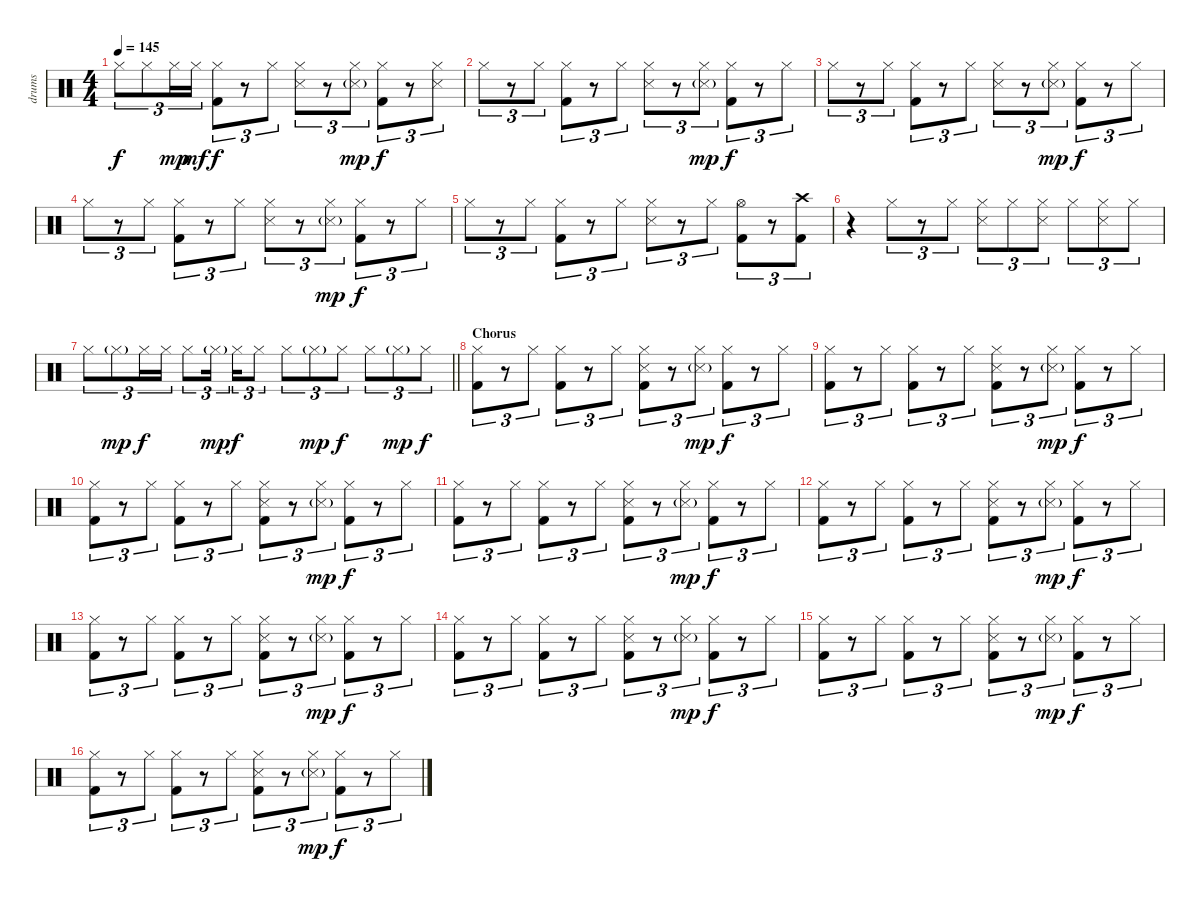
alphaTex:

\track ("drums" "drums") {instrument percussion}
\staff {score}
\articulation defaults
\ts (4 4)
\tempo 145
\clef neutral
\ks c "Hi-Hat (closed)".8{tu (3 2) dy f} "Hi-Hat (closed)".8{tu (3 2)} "Hi-Hat (closed)".16{tu (3 2) dy mp} "Hi-Hat (closed)".16{tu (3 2) dy mf}
("Hi-Hat (closed)" "Kick (hit) 2").8{tu (3 2) dy f} r.8{tu (3 2)} "Hi-Hat (closed)".8{tu (3 2)} ("Hi-Hat (closed)" "Snare (side stick) 3").8{tu (3 2)} r.8{tu (3 2)} ("Hi-Hat (closed)" "Snare (side stick) 3"{g}).8{tu (3 2) dy mp} ("Hi-Hat (closed)" "Kick (hit) 2").8{tu (3 2) dy f} r.8{tu (3 2)} ("Hi-Hat (closed)" "Snare (side stick) 3").8{tu (3 2)} |
"Hi-Hat (closed)".8{tu (3 2)} r.8{tu (3 2)} "Hi-Hat (closed)".8{tu (3 2)} ("Hi-Hat (closed)" "Kick (hit) 2").8{tu (3 2)} r.8{tu (3 2)} "Hi-Hat (closed)".8{tu (3 2)} ("Hi-Hat (closed)" "Snare (side stick) 3").8{tu (3 2)} r.8{tu (3 2)} ("Hi-Hat (closed)" "Snare (side stick) 3"{g}).8{tu (3 2) dy mp} ("Hi-Hat (closed)" "Kick (hit) 2").8{tu (3 2) dy f} r.8{tu (3 2)} "Hi-Hat (closed)".8{tu (3 2)} |
"Hi-Hat (closed)".8{tu (3 2)} r.8{tu (3 2)} "Hi-Hat (closed)".8{tu (3 2)} ("Hi-Hat (closed)" "Kick (hit) 2").8{tu (3 2)} r.8{tu (3 2)} "Hi-Hat (closed)".8{tu (3 2)} ("Hi-Hat (closed)" "Snare (side stick) 3").8{tu (3 2)} r.8{tu (3 2)} ("Hi-Hat (closed)" "Snare (side stick) 3"{g}).8{tu (3 2) dy mp} ("Hi-Hat (closed)" "Kick (hit) 2").8{tu (3 2) dy f} r.8{tu (3 2)} "Hi-Hat (closed)".8{tu (3 2)} |
"Hi-Hat (closed)".8{tu (3 2)} r.8{tu (3 2)} "Hi-Hat (closed)".8{tu (3 2)} ("Hi-Hat (closed)" "Kick (hit) 2").8{tu (3 2)} r.8{tu (3 2)} "Hi-Hat (closed)".8{tu (3 2)} ("Hi-Hat (closed)" "Snare (side stick) 3").8{tu (3 2)} r.8{tu (3 2)} ("Hi-Hat (closed)" "Snare (side stick) 3"{g}).8{tu (3 2) dy mp} ("Hi-Hat (closed)" "Kick (hit) 2").8{tu (3 2) dy f} r.8{tu (3 2)} "Hi-Hat (closed)".8{tu (3 2)} |
"Hi-Hat (closed)".8{tu (3 2)} r.8{tu (3 2)} "Hi-Hat (closed)".8{tu (3 2)} ("Hi-Hat (closed)" "Kick (hit) 2").8{tu (3 2)} r.8{tu (3 2)} "Hi-Hat (closed)".8{tu (3 2)} ("Hi-Hat (closed)" "Snare (side stick) 3").8{tu (3 2)} r.8{tu (3 2)} "Hi-Hat (closed)".8{tu (3 2)} ("Hi-Hat (open)" "Kick (hit) 2").8{tu (3 2)} r.8{tu (3 2)} ("Crash high (hit)" "Kick (hit) 2").8{tu (3 2)} |
r.4 "Hi-Hat (closed)".8{tu (3 2)} r.8{tu (3 2)} "Hi-Hat (closed)".8{tu (3 2)} ("Hi-Hat (closed)" "Snare (side stick) 3").8{tu (3 2)} "Hi-Hat (closed)".8{tu (3 2)} ("Hi-Hat (closed)" "Snare (side stick) 3").8{tu (3 2)} "Hi-Hat (closed)".8{tu (3 2)} ("Hi-Hat (closed)" "Snare (side stick) 3").8{tu (3 2)} "Hi-Hat (closed)".8{tu (3 2)} |
\barLineRight lightlight "Hi-Hat (closed)".8{tu (3 2)} "Hi-Hat (closed)"{g}.8{tu (3 2) dy mp} "Hi-Hat (closed)".16{tu (3 2) dy f} "Hi-Hat (closed)".16{tu (3 2)} "Hi-Hat (closed)".8{tu (3 2)} "Hi-Hat (closed)"{g}.16{tu (3 2) dy mp} "Hi-Hat (closed)".16{tu (3 2) dy f} "Hi-Hat (closed)".8{tu (3 2)} "Hi-Hat (closed)".8{tu (3 2)} "Hi-Hat (closed)"{g}.8{tu (3 2) dy mp} "Hi-Hat (closed)".8{tu (3 2) dy f} "Hi-Hat (closed)".8{tu (3 2)} "Hi-Hat (closed)"{g}.8{tu (3 2) dy mp} "Hi-Hat (closed)".8{tu (3 2) dy f}
|
\section ("" "Chorus")
("Hi-Hat (closed)" "Kick (hit) 2").8{tu (3 2)} r.8{tu (3 2)} "Hi-Hat (closed)".8{tu (3 2)} ("Hi-Hat (closed)" "Kick (hit) 2").8{tu (3 2)} r.8{tu (3 2)} "Hi-Hat (closed)".8{tu (3 2)} ("Hi-Hat (closed)" "Snare (side stick) 3" "Kick (hit) 2").8{tu (3 2)} r.8{tu (3 2)} ("Hi-Hat (closed)" "Snare (side stick) 3"{g}).8{tu (3 2) dy mp} ("Hi-Hat (closed)" "Kick (hit) 2").8{tu (3 2) dy f} r.8{tu (3 2)} "Hi-Hat (closed)".8{tu (3 2)} |
("Hi-Hat (closed)" "Kick (hit) 2").8{tu (3 2)} r.8{tu (3 2)} "Hi-Hat (closed)".8{tu (3 2)} ("Hi-Hat (closed)" "Kick (hit) 2").8{tu (3 2)} r.8{tu (3 2)} "Hi-Hat (closed)".8{tu (3 2)} ("Hi-Hat (closed)" "Snare (side stick) 3" "Kick (hit) 2").8{tu (3 2)} r.8{tu (3 2)} ("Hi-Hat (closed)" "Snare (side stick) 3"{g}).8{tu (3 2) dy mp} ("Hi-Hat (closed)" "Kick (hit) 2").8{tu (3 2) dy f} r.8{tu (3 2)} "Hi-Hat (closed)".8{tu (3 2)} |
("Hi-Hat (closed)" "Kick (hit) 2").8{tu (3 2)} r.8{tu (3 2)} "Hi-Hat (closed)".8{tu (3 2)} ("Hi-Hat (closed)" "Kick (hit) 2").8{tu (3 2)} r.8{tu (3 2)} "Hi-Hat (closed)".8{tu (3 2)} ("Hi-Hat (closed)" "Snare (side stick) 3" "Kick (hit) 2").8{tu (3 2)} r.8{tu (3 2)} ("Hi-Hat (closed)" "Snare (side stick) 3"{g}).8{tu (3 2) dy mp} ("Hi-Hat (closed)" "Kick (hit) 2").8{tu (3 2) dy f} r.8{tu (3 2)} "Hi-Hat (closed)".8{tu (3 2)} |
("Hi-Hat (closed)" "Kick (hit) 2").8{tu (3 2)} r.8{tu (3 2)} "Hi-Hat (closed)".8{tu (3 2)} ("Hi-Hat (closed)" "Kick (hit) 2").8{tu (3 2)} r.8{tu (3 2)} "Hi-Hat (closed)".8{tu (3 2)} ("Hi-Hat (closed)" "Snare (side stick) 3" "Kick (hit) 2").8{tu (3 2)} r.8{tu (3 2)} ("Hi-Hat (closed)" "Snare (side stick) 3"{g}).8{tu (3 2) dy mp} ("Hi-Hat (closed)" "Kick (hit) 2").8{tu (3 2) dy f} r.8{tu (3 2)} "Hi-Hat (closed)".8{tu (3 2)} |
("Hi-Hat (closed)" "Kick (hit) 2").8{tu (3 2)} r.8{tu (3 2)} "Hi-Hat (closed)".8{tu (3 2)} ("Hi-Hat (closed)" "Kick (hit) 2").8{tu (3 2)} r.8{tu (3 2)} "Hi-Hat (closed)".8{tu (3 2)} ("Hi-Hat (closed)" "Snare (side stick) 3" "Kick (hit) 2").8{tu (3 2)} r.8{tu (3 2)} ("Hi-Hat (closed)" "Snare (side stick) 3"{g}).8{tu (3 2) dy mp} ("Hi-Hat (closed)" "Kick (hit) 2").8{tu (3 2) dy f} r.8{tu (3 2)} "Hi-Hat (closed)".8{tu (3 2)} |
("Hi-Hat (closed)" "Kick (hit) 2").8{tu (3 2)} r.8{tu (3 2)} "Hi-Hat (closed)".8{tu (3 2)} ("Hi-Hat (closed)" "Kick (hit) 2").8{tu (3 2)} r.8{tu (3 2)} "Hi-Hat (closed)".8{tu (3 2)} ("Hi-Hat (closed)" "Snare (side stick) 3" "Kick (hit) 2").8{tu (3 2)} r.8{tu (3 2)} ("Hi-Hat (closed)" "Snare (side stick) 3"{g}).8{tu (3 2) dy mp} ("Hi-Hat (closed)" "Kick (hit) 2").8{tu (3 2) dy f} r.8{tu (3 2)} "Hi-Hat (closed)".8{tu (3 2)} |
("Hi-Hat (closed)" "Kick (hit) 2").8{tu (3 2)} r.8{tu (3 2)} "Hi-Hat (closed)".8{tu (3 2)} ("Hi-Hat (closed)" "Kick (hit) 2").8{tu (3 2)} r.8{tu (3 2)} "Hi-Hat (closed)".8{tu (3 2)} ("Hi-Hat (closed)" "Snare (side stick) 3" "Kick (hit) 2").8{tu (3 2)} r.8{tu (3 2)} ("Hi-Hat (closed)" "Snare (side stick) 3"{g}).8{tu (3 2) dy mp} ("Hi-Hat (closed)" "Kick (hit) 2").8{tu (3 2) dy f} r.8{tu (3 2)} "Hi-Hat (closed)".8{tu (3 2)} |
("Hi-Hat (closed)" "Kick (hit) 2").8{tu (3 2)} r.8{tu (3 2)} "Hi-Hat (closed)".8{tu (3 2)} ("Hi-Hat (closed)" "Kick (hit) 2").8{tu (3 2)} r.8{tu (3 2)} "Hi-Hat (closed)".8{tu (3 2)} ("Hi-Hat (closed)" "Snare (side stick) 3" "Kick (hit) 2").8{tu (3 2)} r.8{tu (3 2)} ("Hi-Hat (closed)" "Snare (side stick) 3"{g}).8{tu (3 2) dy mp} ("Hi-Hat (closed)" "Kick (hit) 2").8{tu (3 2) dy f} r.8{tu (3 2)} "Hi-Hat (closed)".8{tu (3 2)} |
("Hi-Hat (closed)" "Kick (hit) 2").8{tu (3 2)} r.8{tu (3 2)} "Hi-Hat (closed)".8{tu (3 2)} ("Hi-Hat (closed)" "Kick (hit) 2").8{tu (3 2)} r.8{tu (3 2)} "Hi-Hat (closed)".8{tu (3 2)} ("Hi-Hat (closed)" "Snare (side stick) 3" "Kick (hit) 2").8{tu (3 2)} r.8{tu (3 2)} ("Hi-Hat (closed)" "Snare (side stick) 3"{g}).8{tu (3 2) dy mp} ("Hi-Hat (closed)" "Kick (hit) 2").8{tu (3 2) dy f} r.8{tu (3 2)} "Hi-Hat (closed)".8{tu (3 2)}
